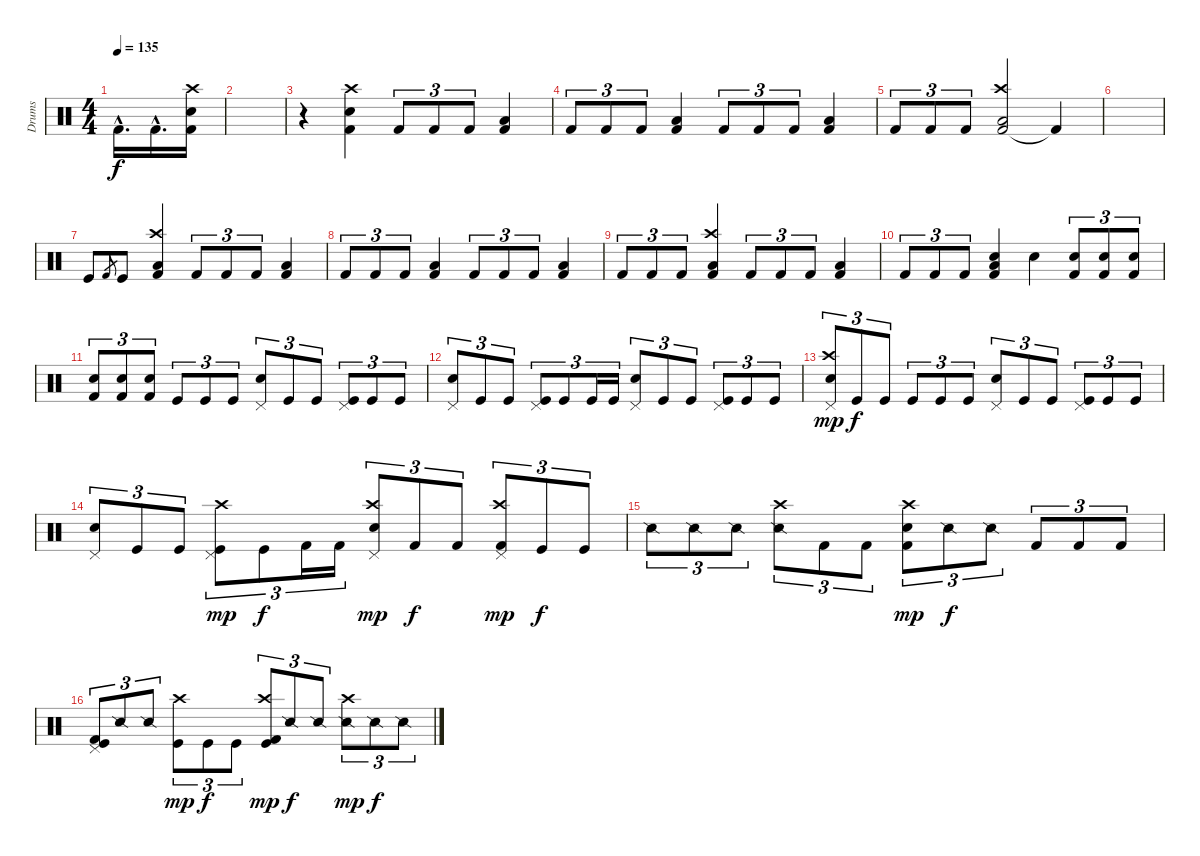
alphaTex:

\track ("Drums" "Drums") {instrument percussion}
\staff {score}
\articulation defaults
\ts (4 4)
\tempo 135
\clef neutral
\ks c "Kick (hit) 2"{hac}.16{d dy f} "Kick (hit) 2"{hac}.16{d}
("Snare (hit) 2" "Kick (hit) 2" "Crash high (hit)").16 |
|
r.4 ("Snare (hit) 2" "Kick (hit) 2" "Crash high (hit)").4 "Kick (hit) 2".8{tu (3 2)} "Kick (hit) 2".8{tu (3 2)} "Kick (hit) 2".8{tu (3 2)} ("Kick (hit) 2" "Low Floor Tom (hit)").4 |
"Kick (hit) 2".8{tu (3 2)} "Kick (hit) 2".8{tu (3 2)} "Kick (hit) 2".8{tu (3 2)} ("Kick (hit) 2" "Low Floor Tom (hit)").4 "Kick (hit) 2".8{tu (3 2)} "Kick (hit) 2".8{tu (3 2)} "Kick (hit) 2".8{tu (3 2)} ("Kick (hit) 2" "Low Floor Tom (hit)").4 |
"Kick (hit) 2".8{tu (3 2)} "Kick (hit) 2".8{tu (3 2)} "Kick (hit) 2".8{tu (3 2)} ("Kick (hit) 2" "Low Floor Tom (hit)" "Crash high (hit)").2 "Kick (hit) 2"{t}.4 |
|
"Kick (hit)".8 "Kick (hit) 2".8{gr} "Kick (hit)".8 ("Kick (hit) 2" "Low Floor Tom (hit)" "Crash high (hit)").4 "Kick (hit) 2".8{tu (3 2)} "Kick (hit) 2".8{tu (3 2)} "Kick (hit) 2".8{tu (3 2)} ("Kick (hit) 2" "Low Floor Tom (hit)").4 |
"Kick (hit) 2".8{tu (3 2)} "Kick (hit) 2".8{tu (3 2)} "Kick (hit) 2".8{tu (3 2)} ("Kick (hit) 2" "Low Floor Tom (hit)").4 "Kick (hit) 2".8{tu (3 2)} "Kick (hit) 2".8{tu (3 2)} "Kick (hit) 2".8{tu (3 2)} ("Kick (hit) 2" "Low Floor Tom (hit)").4 |
"Kick (hit) 2".8{tu (3 2)} "Kick (hit) 2".8{tu (3 2)} "Kick (hit) 2".8{tu (3 2)} ("Kick (hit) 2" "Low Floor Tom (hit)" "Crash high (hit)").4 "Kick (hit) 2".8{tu (3 2)} "Kick (hit) 2".8{tu (3 2)} "Kick (hit) 2".8{tu (3 2)} ("Kick (hit) 2" "Low Floor Tom (hit)").4 |
"Kick (hit) 2".8{tu (3 2)} "Kick (hit) 2".8{tu (3 2)} "Kick (hit) 2".8{tu (3 2)} ("Kick (hit) 2" "Low Floor Tom (hit)" "Snare (hit) 2").4 "Snare (hit) 2".4 ("Kick (hit) 2" "Snare (hit) 2").8{tu (3 2)} ("Kick (hit) 2" "Snare (hit) 2").8{tu (3 2)} ("Kick (hit) 2" "Snare (hit) 2").8{tu (3 2)} |
("Kick (hit) 2" "Snare (hit) 2").8{tu (3 2)} ("Kick (hit) 2" "Snare (hit) 2").8{tu (3 2)} ("Kick (hit) 2" "Snare (hit) 2").8{tu (3 2)} "Kick (hit)".8{tu (3 2)} "Kick (hit)".8{tu (3 2)} "Kick (hit)".8{tu (3 2)} ("Snare (hit) 2" "Pedal Hi-Hat (hit)").8{tu (3 2)} "Kick (hit)".8{tu (3 2)} "Kick (hit)".8{tu (3 2)} ("Kick (hit)" "Pedal Hi-Hat (hit)").8{tu (3 2)} "Kick (hit)".8{tu (3 2)} "Kick (hit)".8{tu (3 2)} |
("Snare (hit) 2" "Pedal Hi-Hat (hit)").8{tu (3 2)} "Kick (hit)".8{tu (3 2)} "Kick (hit)".8{tu (3 2)} ("Kick (hit)" "Pedal Hi-Hat (hit)").8{tu (3 2)} "Kick (hit)".8{tu (3 2)} "Kick (hit)".16{tu (3 2)} "Kick (hit)".16{tu (3 2)} ("Snare (hit) 2" "Pedal Hi-Hat (hit)").8{tu (3 2)} "Kick (hit)".8{tu (3 2)} "Kick (hit)".8{tu (3 2)} ("Kick (hit)" "Pedal Hi-Hat (hit)").8{tu (3 2)} "Kick (hit)".8{tu (3 2)} "Kick (hit)".8{tu (3 2)} |
("Snare (hit) 2" "Pedal Hi-Hat (hit)" "Crash high (hit)").8{tu (3 2) dy mp} "Kick (hit)".8{tu (3 2) dy f} "Kick (hit)".8{tu (3 2)} "Kick (hit)".8{tu (3 2)} "Kick (hit)".8{tu (3 2)} "Kick (hit)".8{tu (3 2)} ("Snare (hit) 2" "Pedal Hi-Hat (hit)").8{tu (3 2)} "Kick (hit)".8{tu (3 2)} "Kick (hit)".8{tu (3 2)} ("Kick (hit)" "Pedal Hi-Hat (hit)").8{tu (3 2)} "Kick (hit)".8{tu (3 2)} "Kick (hit)".8{tu (3 2)} |
("Snare (hit) 2" "Pedal Hi-Hat (hit)").8{tu (3 2)} "Kick (hit)".8{tu (3 2)} "Kick (hit)".8{tu (3 2)} ("Kick (hit)" "Pedal Hi-Hat (hit)" "Crash high (hit)").8{tu (3 2) dy mp} "Kick (hit)".8{tu (3 2) dy f} "Kick (hit) 2".16{tu (3 2)} "Kick (hit) 2".16{tu (3 2)} ("Snare (hit) 2" "Pedal Hi-Hat (hit)" "Crash high (hit)").8{tu (3 2) dy mp} "Kick (hit) 2".8{tu (3 2) dy f} "Kick (hit) 2".8{tu (3 2)} ("Kick (hit) 2" "Pedal Hi-Hat (hit)" "Crash high (hit)").8{tu (3 2) dy mp} "Kick (hit)".8{tu (3 2) dy f} "Kick (hit)".8{tu (3 2)} |
"Snare (side stick) 2".8{tu (3 2)} "Snare (side stick) 2".8{tu (3 2)} "Snare (side stick) 2".8{tu (3 2)} ("Snare (side stick) 2" "Crash high (hit)").8{tu (3 2)} "Kick (hit) 2".8{tu (3 2)} "Kick (hit) 2".8{tu (3 2)} ("Kick (hit) 2" "Snare (hit) 2" "Crash high (hit)").8{tu (3 2) dy mp} "Snare (side stick) 2".8{tu (3 2) dy f} "Snare (side stick) 2".8{tu (3 2)} "Kick (hit) 2".8{tu (3 2)} "Kick (hit) 2".8{tu (3 2)} "Kick (hit) 2".8{tu (3 2)} |
("Kick (hit) 2" "Kick (hit)" "Pedal Hi-Hat (hit)").8{tu (3 2)} "Snare (side stick) 2".8{tu (3 2)} "Snare (side stick) 2".8{tu (3 2)} ("Kick (hit)" "Crash high (hit)").8{tu (3 2) dy mp} "Kick (hit)".8{tu (3 2) dy f} "Kick (hit)".8{tu (3 2)} ("Kick (hit)" "Kick (hit) 2" "Crash high (hit)").8{tu (3 2) dy mp} "Snare (side stick) 2".8{tu (3 2) dy f} "Snare (side stick) 2".8{tu (3 2)} ("Snare (side stick) 2" "Crash high (hit)").8{tu (3 2) dy mp} "Snare (side stick) 2".8{tu (3 2) dy f} "Snare (side stick) 2".8{tu (3 2)}
